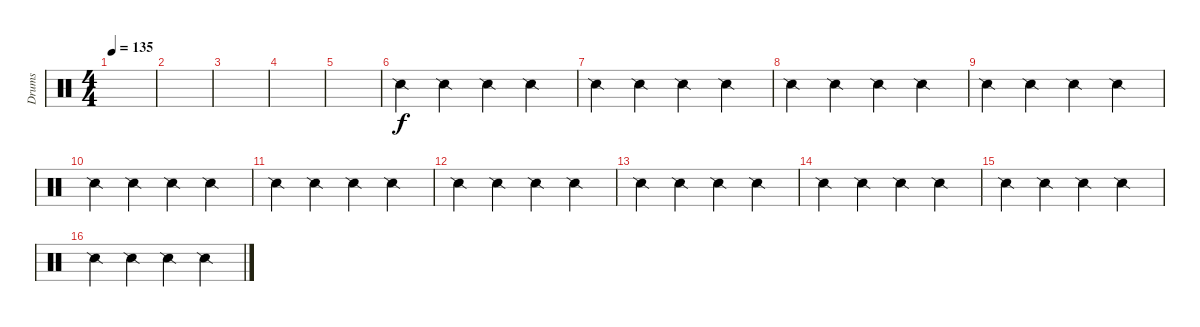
\track ("Drums" "Drums") {instrument percussion}
\staff {score}
\articulation defaults
\ts (4 4)
\tempo 135
\clef neutral
\ks c
|
|
|
|
|
"Snare (side stick) 2".4 "Snare (side stick) 2".4 "Snare (side stick) 2".4 "Snare (side stick) 2".4 |
"Snare (side stick) 2".4 "Snare (side stick) 2".4 "Snare (side stick) 2".4 "Snare (side stick) 2".4 |
"Snare (side stick) 2".4 "Snare (side stick) 2".4 "Snare (side stick) 2".4 "Snare (side stick) 2".4 |
"Snare (side stick) 2".4 "Snare (side stick) 2".4 "Snare (side stick) 2".4 "Snare (side stick) 2".4 |
"Snare (side stick) 2".4 "Snare (side stick) 2".4 "Snare (side stick) 2".4 "Snare (side stick) 2".4 |
"Snare (side stick) 2".4 "Snare (side stick) 2".4 "Snare (side stick) 2".4 "Snare (side stick) 2".4 |
"Snare (side stick) 2".4 "Snare (side stick) 2".4 "Snare (side stick) 2".4 "Snare (side stick) 2".4 |
"Snare (side stick) 2".4 "Snare (side stick) 2".4 "Snare (side stick) 2".4 "Snare (side stick) 2".4 |
"Snare (side stick) 2".4 "Snare (side stick) 2".4 "Snare (side stick) 2".4 "Snare (side stick) 2".4 |
"Snare (side stick) 2".4 "Snare (side stick) 2".4 "Snare (side stick) 2".4 "Snare (side stick) 2".4 |
"Snare (side stick) 2".4 "Snare (side stick) 2".4 "Snare (side stick) 2".4 "Snare (side stick) 2".4
